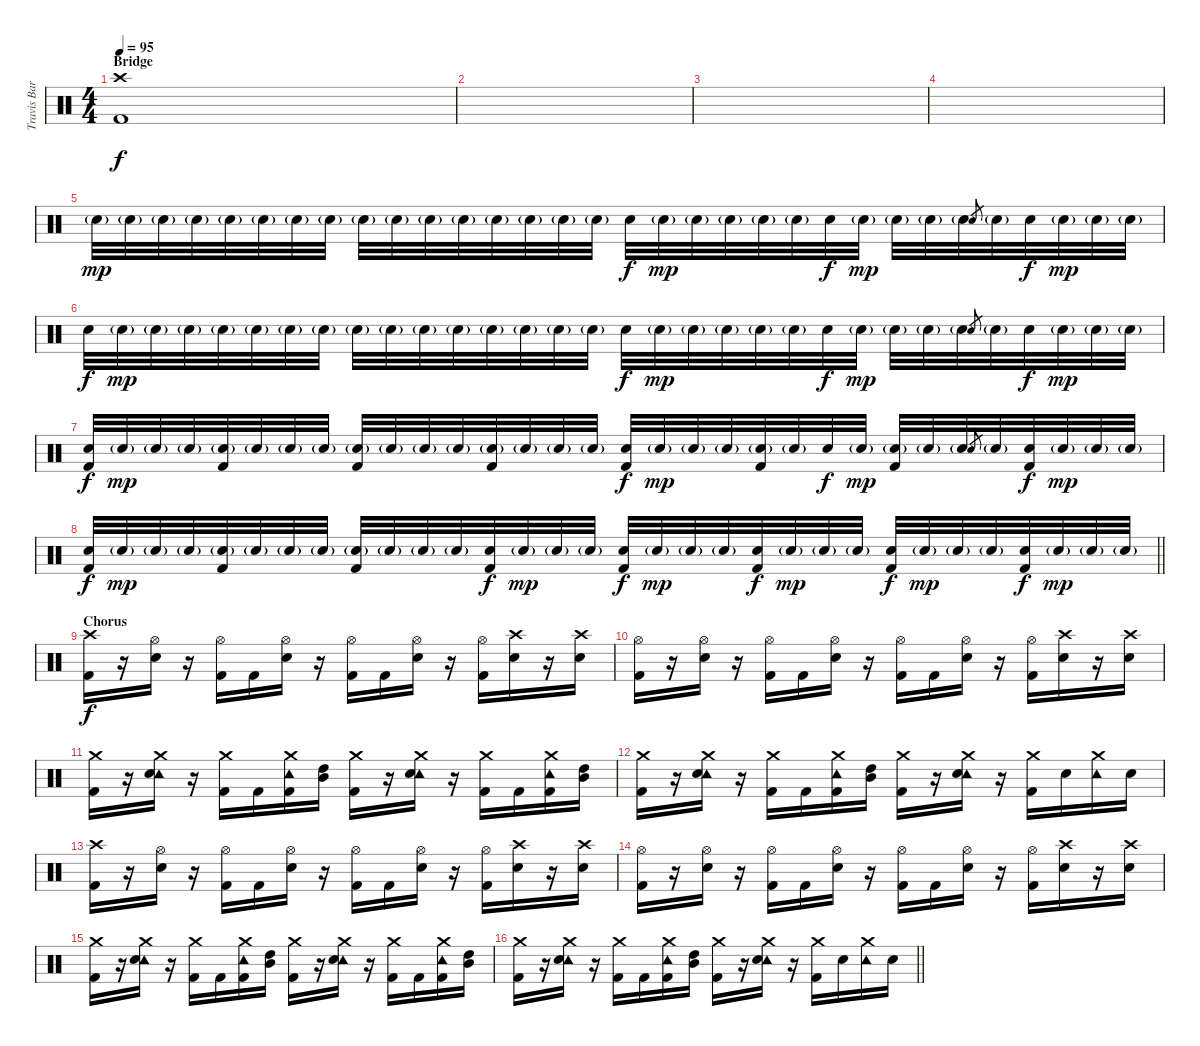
\track ("Travis Barker [Drums]" "Travis Bar") {instrument percussion}
\staff {score}
\articulation defaults
\ts (4 4)
\section ("" "Bridge")
\tempo 95
\clef neutral
\ks c
("Crash high (hit)" "Kick (hit) 2").1{dy f} |
|
|
|
"Electric Snare (hit)"{g}.32{dy mp volume 8} "Electric Snare (hit)"{g}.32 "Electric Snare (hit)"{g}.32 "Electric Snare (hit)"{g}.32 "Electric Snare (hit)"{g}.32 "Electric Snare (hit)"{g}.32 "Electric Snare (hit)"{g}.32 "Electric Snare (hit)"{g}.32 "Electric Snare (hit)"{g}.32 "Electric Snare (hit)"{g}.32 "Electric Snare (hit)"{g}.32 "Electric Snare (hit)"{g}.32 "Electric Snare (hit)"{g}.32 "Electric Snare (hit)"{g}.32 "Electric Snare (hit)"{g}.32 "Electric Snare (hit)"{g}.32 "Electric Snare (hit)".32{dy f} "Electric Snare (hit)"{g}.32{dy mp} "Electric Snare (hit)"{g}.32 "Electric Snare (hit)"{g}.32 "Electric Snare (hit)"{g}.32 "Electric Snare (hit)"{g}.32 "Electric Snare (hit)".32{dy f} "Electric Snare (hit)"{g}.32{dy mp} "Electric Snare (hit)"{g}.32 "Electric Snare (hit)"{g}.32 "Electric Snare (hit)"{g}.32 "Electric Snare (hit)".8{gr} "Electric Snare (hit)"{g}.32 "Electric Snare (hit)".32{dy f} "Electric Snare (hit)"{g}.32{dy mp} "Electric Snare (hit)"{g}.32 "Electric Snare (hit)"{g}.32 |
"Electric Snare (hit)".32{dy f} "Electric Snare (hit)"{g}.32{dy mp} "Electric Snare (hit)"{g}.32 "Electric Snare (hit)"{g}.32 "Electric Snare (hit)"{g}.32 "Electric Snare (hit)"{g}.32 "Electric Snare (hit)"{g}.32 "Electric Snare (hit)"{g}.32 "Electric Snare (hit)"{g}.32 "Electric Snare (hit)"{g}.32{volume 8} "Electric Snare (hit)"{g}.32 "Electric Snare (hit)"{g}.32 "Electric Snare (hit)"{g}.32 "Electric Snare (hit)"{g}.32 "Electric Snare (hit)"{g}.32 "Electric Snare (hit)"{g}.32 "Electric Snare (hit)".32{dy f} "Electric Snare (hit)"{g}.32{dy mp} "Electric Snare (hit)"{g}.32 "Electric Snare (hit)"{g}.32 "Electric Snare (hit)"{g}.32 "Electric Snare (hit)"{g}.32 "Electric Snare (hit)".32{dy f} "Electric Snare (hit)"{g}.32{dy mp} "Electric Snare (hit)"{g}.32 "Electric Snare (hit)"{g}.32 "Electric Snare (hit)"{g}.32 "Electric Snare (hit)".8{gr} "Electric Snare (hit)"{g}.32 "Electric Snare (hit)".32{dy f} "Electric Snare (hit)"{g}.32{dy mp} "Electric Snare (hit)"{g}.32 "Electric Snare (hit)"{g}.32 |
("Electric Snare (hit)" "Kick (hit) 2").32{dy f} "Electric Snare (hit)"{g}.32{dy mp} "Electric Snare (hit)"{g}.32 "Electric Snare (hit)"{g}.32 ("Electric Snare (hit)"{g} "Kick (hit) 2").32 "Electric Snare (hit)"{g}.32 "Electric Snare (hit)"{g}.32 "Electric Snare (hit)"{g}.32 ("Electric Snare (hit)"{g} "Kick (hit) 2").32 "Electric Snare (hit)"{g}.32 "Electric Snare (hit)"{g}.32 "Electric Snare (hit)"{g}.32 ("Electric Snare (hit)"{g} "Kick (hit) 2").32 "Electric Snare (hit)"{g}.32 "Electric Snare (hit)"{g}.32 "Electric Snare (hit)"{g}.32 ("Electric Snare (hit)" "Kick (hit) 2").32{dy f} "Electric Snare (hit)"{g}.32{dy mp} "Electric Snare (hit)"{g}.32{volume 13} "Electric Snare (hit)"{g}.32 ("Electric Snare (hit)"{g} "Kick (hit) 2").32 "Electric Snare (hit)"{g}.32 "Electric Snare (hit)".32{dy f} "Electric Snare (hit)"{g}.32{dy mp} ("Electric Snare (hit)"{g} "Kick (hit) 2").32 "Electric Snare (hit)"{g}.32 "Electric Snare (hit)"{g}.32 "Electric Snare (hit)".8{gr} "Electric Snare (hit)"{g}.32 ("Electric Snare (hit)" "Kick (hit) 2").32{dy f} "Electric Snare (hit)"{g}.32{dy mp} "Electric Snare (hit)"{g}.32 "Electric Snare (hit)"{g}.32 |
\barLineRight lightlight
("Electric Snare (hit)" "Kick (hit) 2").32{dy f} "Electric Snare (hit)"{g}.32{dy mp} "Electric Snare (hit)"{g}.32 "Electric Snare (hit)"{g}.32 ("Electric Snare (hit)"{g} "Kick (hit) 2").32 "Electric Snare (hit)"{g}.32 "Electric Snare (hit)"{g}.32 "Electric Snare (hit)"{g}.32 ("Electric Snare (hit)"{g} "Kick (hit) 2").32 "Electric Snare (hit)"{g}.32 "Electric Snare (hit)"{g}.32 "Electric Snare (hit)"{g}.32 ("Electric Snare (hit)" "Kick (hit) 2").32{dy f} "Electric Snare (hit)"{g}.32{dy mp} "Electric Snare (hit)"{g}.32 "Electric Snare (hit)"{g}.32 ("Electric Snare (hit)" "Kick (hit) 2").32{dy f} "Electric Snare (hit)"{g}.32{dy mp} "Electric Snare (hit)"{g}.32 "Electric Snare (hit)"{g}.32 ("Electric Snare (hit)" "Kick (hit) 2").32{dy f} "Electric Snare (hit)"{g}.32{dy mp} "Electric Snare (hit)"{g}.32 "Electric Snare (hit)"{g}.32 ("Electric Snare (hit)" "Kick (hit) 2").32{dy f} "Electric Snare (hit)"{g}.32{dy mp} "Electric Snare (hit)"{g}.32 "Electric Snare (hit)"{g}.32 ("Electric Snare (hit)" "Kick (hit) 2").32{dy f} "Electric Snare (hit)"{g}.32{dy mp} "Electric Snare (hit)"{g}.32 "Electric Snare (hit)"{g}.32 |
\section ("" "Chorus")
("Crash high (hit)" "Kick (hit) 2").16{dy f} r.16 ("Hi-Hat (open)" "Electric Snare (hit)").16 r.16 ("Hi-Hat (open)" "Kick (hit) 2").16 "Kick (hit) 2".16 ("Hi-Hat (open)" "Electric Snare (hit)").16 r.16 ("Hi-Hat (open)" "Kick (hit) 2").16 "Kick (hit) 2".16 ("Hi-Hat (open)" "Electric Snare (hit)").16 r.16 ("Hi-Hat (open)" "Kick (hit) 2").16 ("Crash high (hit)" "Electric Snare (hit)").16 r.16 ("Crash high (hit)" "Electric Snare (hit)").16 |
("Hi-Hat (open)" "Kick (hit) 2").16 r.16 ("Hi-Hat (open)" "Electric Snare (hit)").16 r.16 ("Hi-Hat (open)" "Kick (hit) 2").16 "Kick (hit) 2".16 ("Hi-Hat (open)" "Electric Snare (hit)").16 r.16 ("Hi-Hat (open)" "Kick (hit) 2").16 "Kick (hit) 2".16 ("Hi-Hat (open)" "Electric Snare (hit)").16 r.16 ("Hi-Hat (open)" "Kick (hit) 2").16 ("Crash high (hit)" "Electric Snare (hit)").16 r.16 ("Crash high (hit)" "Electric Snare (hit)").16 |
("Crash medium (hit)" "Kick (hit) 2").16 r.16 ("Crash medium (hit)" "Tambourine (hit)" "Electric Snare (hit)").16 r.16 ("Crash medium (hit)" "Kick (hit) 2").16 "Kick (hit) 2".16 ("Crash medium (hit)" "Tambourine (hit)" "Kick (hit) 2").16 ("Mid Tom (hit)" "High Tom (hit)").16 ("Crash medium (hit)" "Kick (hit) 2").16 r.16 ("Crash medium (hit)" "Tambourine (hit)" "Electric Snare (hit)").16 r.16 ("Crash medium (hit)" "Kick (hit) 2").16 "Kick (hit) 2".16 ("Crash medium (hit)" "Tambourine (hit)" "Kick (hit) 2").16 ("Mid Tom (hit)" "High Tom (hit)").16 |
("Crash medium (hit)" "Kick (hit) 2").16 r.16 ("Crash medium (hit)" "Tambourine (hit)" "Electric Snare (hit)").16 r.16 ("Crash medium (hit)" "Kick (hit) 2").16 "Kick (hit) 2".16 ("Crash medium (hit)" "Tambourine (hit)" "Kick (hit) 2").16 ("Mid Tom (hit)" "High Tom (hit)").16 ("Crash medium (hit)" "Kick (hit) 2").16 r.16 ("Crash medium (hit)" "Tambourine (hit)" "Electric Snare (hit)").16 r.16 ("Crash medium (hit)" "Kick (hit) 2").16 "Electric Snare (hit)".16 ("Crash medium (hit)" "Tambourine (hit)").16 "Electric Snare (hit)".16 |
("Crash high (hit)" "Kick (hit) 2").16 r.16 ("Hi-Hat (open)" "Electric Snare (hit)").16 r.16 ("Hi-Hat (open)" "Kick (hit) 2").16 "Kick (hit) 2".16 ("Hi-Hat (open)" "Electric Snare (hit)").16 r.16 ("Hi-Hat (open)" "Kick (hit) 2").16 "Kick (hit) 2".16 ("Hi-Hat (open)" "Electric Snare (hit)").16 r.16 ("Hi-Hat (open)" "Kick (hit) 2").16 ("Crash high (hit)" "Electric Snare (hit)").16 r.16 ("Crash high (hit)" "Electric Snare (hit)").16 |
("Hi-Hat (open)" "Kick (hit) 2").16 r.16 ("Hi-Hat (open)" "Electric Snare (hit)").16 r.16 ("Hi-Hat (open)" "Kick (hit) 2").16 "Kick (hit) 2".16 ("Hi-Hat (open)" "Electric Snare (hit)").16 r.16 ("Hi-Hat (open)" "Kick (hit) 2").16 "Kick (hit) 2".16 ("Hi-Hat (open)" "Electric Snare (hit)").16 r.16 ("Hi-Hat (open)" "Kick (hit) 2").16 ("Crash high (hit)" "Electric Snare (hit)").16 r.16 ("Crash high (hit)" "Electric Snare (hit)").16 |
("Crash medium (hit)" "Kick (hit) 2").16 r.16 ("Crash medium (hit)" "Tambourine (hit)" "Electric Snare (hit)").16 r.16 ("Crash medium (hit)" "Kick (hit) 2").16 "Kick (hit) 2".16 ("Crash medium (hit)" "Tambourine (hit)" "Kick (hit) 2").16 ("Mid Tom (hit)" "High Tom (hit)").16 ("Crash medium (hit)" "Kick (hit) 2").16 r.16 ("Crash medium (hit)" "Tambourine (hit)" "Electric Snare (hit)").16 r.16 ("Crash medium (hit)" "Kick (hit) 2").16 "Kick (hit) 2".16 ("Crash medium (hit)" "Tambourine (hit)" "Kick (hit) 2").16 ("Mid Tom (hit)" "High Tom (hit)").16 |
\barLineRight lightlight
("Crash medium (hit)" "Kick (hit) 2").16 r.16 ("Crash medium (hit)" "Tambourine (hit)" "Electric Snare (hit)").16 r.16 ("Crash medium (hit)" "Kick (hit) 2").16 "Kick (hit) 2".16 ("Crash medium (hit)" "Tambourine (hit)" "Kick (hit) 2").16 ("Mid Tom (hit)" "High Tom (hit)").16 ("Crash medium (hit)" "Kick (hit) 2").16 r.16 ("Crash medium (hit)" "Tambourine (hit)" "Electric Snare (hit)").16 r.16 ("Crash medium (hit)" "Kick (hit) 2").16 "Electric Snare (hit)".16 ("Crash medium (hit)" "Tambourine (hit)").16 "Electric Snare (hit)".16
